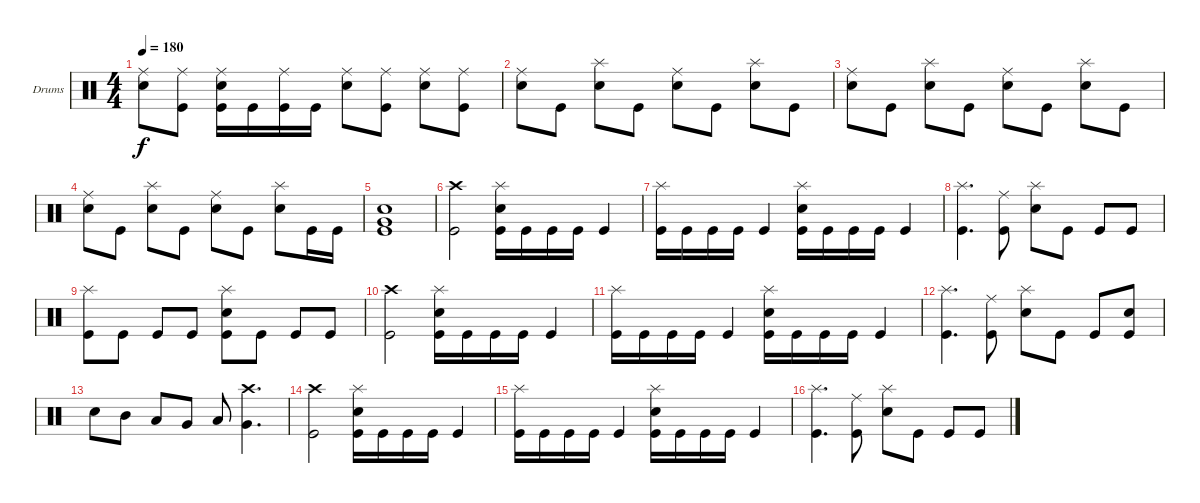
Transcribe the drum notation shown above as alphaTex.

\bracketExtendMode groupsimilarinstruments
\firstSystemTrackNameOrientation horizontal
\otherSystemsTrackNameOrientation horizontal
\track ("Drumkit" "Drums") {instrument percussion}
\staff {score}
\articulation defaults
\ts (4 4)
\tempo 180
\clef neutral
\ks c
("Ride (middle)" "Snare (hit) 2").8{dy f} ("Ride (middle)" "Kick (hit)").8 ("Ride (middle)" "Snare (hit) 2" "Kick (hit)").16 "Kick (hit)".16 ("Ride (middle)" "Kick (hit)").16 "Kick (hit)".16 ("Ride (middle)" "Snare (hit) 2").8 ("Ride (middle)" "Kick (hit)").8 ("Ride (middle)" "Snare (hit) 2").8 ("Ride (middle)" "Kick (hit)").8 |
("Ride (middle)" "Snare (hit) 2").8 "Kick (hit)".8 ("Splash (hit)" "Snare (hit) 2").8 "Kick (hit)".8 ("Ride (middle)" "Snare (hit) 2").8 "Kick (hit)".8 ("Splash (hit)" "Snare (hit) 2").8 "Kick (hit)".8 |
("Ride (middle)" "Snare (hit) 2").8 "Kick (hit)".8 ("Splash (hit)" "Snare (hit) 2").8 "Kick (hit)".8 ("Ride (middle)" "Snare (hit) 2").8 "Kick (hit)".8 ("Splash (hit)" "Snare (hit) 2").8 "Kick (hit)".8 |
("Ride (middle)" "Snare (hit) 2").8 "Kick (hit)".8 ("Splash (hit)" "Snare (hit) 2").8 "Kick (hit)".8 ("Ride (middle)" "Snare (hit) 2").8 "Kick (hit)".8 ("Splash (hit)" "Snare (hit) 2").8 "Kick (hit)".16 "Kick (hit)".16 |
("Very Low Tom (hit)" "Snare (hit) 2" "Kick (hit)").1 |
("Crash high (hit)" "Kick (hit)").2 ("Splash (hit)" "Snare (hit) 2" "Kick (hit)").16 "Kick (hit)".16 "Kick (hit)".16 "Kick (hit)".16 "Kick (hit)".4 |
("Splash (hit)" "Kick (hit)").16 "Kick (hit)".16 "Kick (hit)".16 "Kick (hit)".16 "Kick (hit)".4 ("Splash (hit)" "Snare (hit) 2" "Kick (hit)").16 "Kick (hit)".16 "Kick (hit)".16 "Kick (hit)".16 "Kick (hit)".4 |
("Splash (hit)" "Kick (hit)").4{d} ("Ride (middle)" "Kick (hit)").8 ("Splash (hit)" "Snare (hit) 2").8 "Kick (hit)".8 "Kick (hit)".8 "Kick (hit)".8 |
("Splash (hit)" "Kick (hit)").8 "Kick (hit)".8 "Kick (hit)".8 "Kick (hit)".8 ("Splash (hit)" "Snare (hit) 2" "Kick (hit)").8 "Kick (hit)".8 "Kick (hit)".8 "Kick (hit)".8 |
("Crash high (hit)" "Kick (hit)").2 ("Splash (hit)" "Snare (hit) 2" "Kick (hit)").16 "Kick (hit)".16 "Kick (hit)".16 "Kick (hit)".16 "Kick (hit)".4 |
("Splash (hit)" "Kick (hit)").16 "Kick (hit)".16 "Kick (hit)".16 "Kick (hit)".16 "Kick (hit)".4 ("Splash (hit)" "Snare (hit) 2" "Kick (hit)").16 "Kick (hit)".16 "Kick (hit)".16 "Kick (hit)".16 "Kick (hit)".4 |
("Splash (hit)" "Kick (hit)").4{d} ("Ride (middle)" "Kick (hit)").8 ("Splash (hit)" "Snare (hit) 2").8 "Kick (hit)".8 "Kick (hit)".8 ("Snare (hit) 2" "Kick (hit)").8 |
"Snare (hit) 2".8 "Mid Tom (hit)".8 "Low Tom (hit)".8 "Very Low Tom (hit)".8 "Low Tom (hit)".8 ("Crash high (hit)" "Very Low Tom (hit)").4{d} |
("Crash high (hit)" "Kick (hit)").2 ("Splash (hit)" "Snare (hit) 2" "Kick (hit)").16 "Kick (hit)".16 "Kick (hit)".16 "Kick (hit)".16 "Kick (hit)".4 |
("Splash (hit)" "Kick (hit)").16 "Kick (hit)".16 "Kick (hit)".16 "Kick (hit)".16 "Kick (hit)".4 ("Splash (hit)" "Snare (hit) 2" "Kick (hit)").16 "Kick (hit)".16 "Kick (hit)".16 "Kick (hit)".16 "Kick (hit)".4 |
("Splash (hit)" "Kick (hit)").4{d} ("Ride (middle)" "Kick (hit)").8 ("Splash (hit)" "Snare (hit) 2").8 "Kick (hit)".8 "Kick (hit)".8 "Kick (hit)".8
